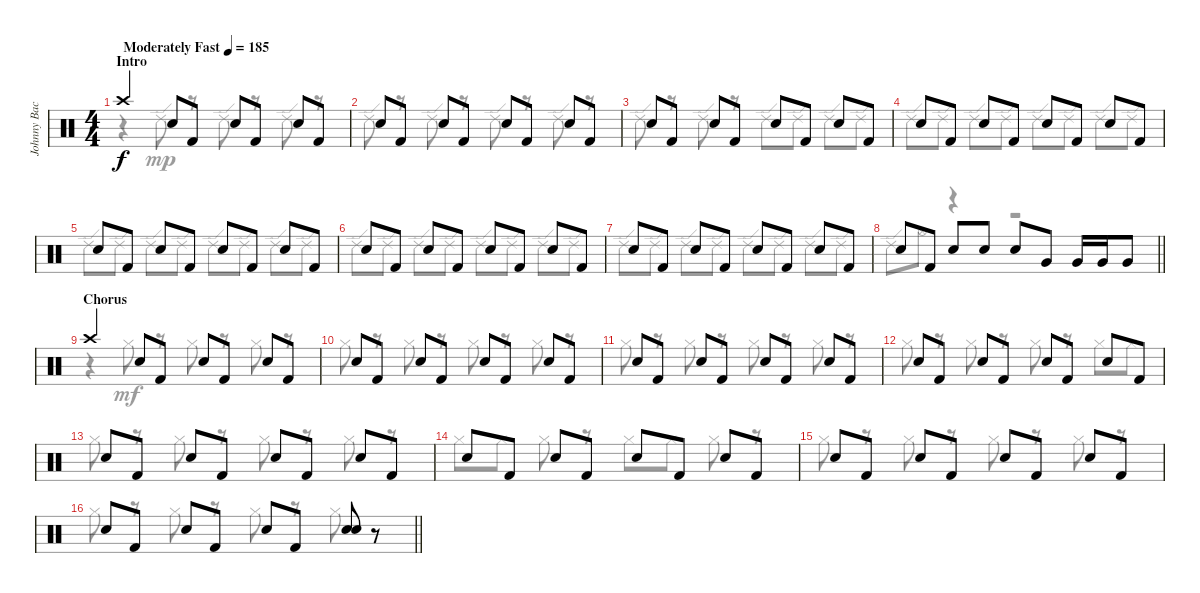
\track ("Johnny Backbeat" "Johnny Bac") {instrument percussion}
\staff {score}
\articulation defaults
\voice
\ts (4 4)
\section ("" "Intro")
\tempo (185 "Moderately Fast")
\clef neutral
\ks c "Crash high (hit)".4{dy f} "Electric Snare (hit)".8 "Kick (hit) 2".8 "Electric Snare (hit)".8 "Kick (hit) 2".8 "Electric Snare (hit)".8 "Kick (hit) 2".8
|
"Electric Snare (hit)".8 "Kick (hit) 2".8 "Electric Snare (hit)".8 "Kick (hit) 2".8 "Electric Snare (hit)".8 "Kick (hit) 2".8 "Electric Snare (hit)".8 "Kick (hit) 2".8 |
"Electric Snare (hit)".8 "Kick (hit) 2".8 "Electric Snare (hit)".8 "Kick (hit) 2".8 "Electric Snare (hit)".8 "Kick (hit) 2".8 "Electric Snare (hit)".8 "Kick (hit) 2".8 |
"Electric Snare (hit)".8 "Kick (hit) 2".8 "Electric Snare (hit)".8 "Kick (hit) 2".8 "Electric Snare (hit)".8 "Kick (hit) 2".8 "Electric Snare (hit)".8 "Kick (hit) 2".8 |
"Electric Snare (hit)".8 "Kick (hit) 2".8 "Electric Snare (hit)".8 "Kick (hit) 2".8 "Electric Snare (hit)".8 "Kick (hit) 2".8 "Electric Snare (hit)".8 "Kick (hit) 2".8 |
"Electric Snare (hit)".8 "Kick (hit) 2".8 "Electric Snare (hit)".8 "Kick (hit) 2".8 "Electric Snare (hit)".8 "Kick (hit) 2".8 "Electric Snare (hit)".8 "Kick (hit) 2".8 |
"Electric Snare (hit)".8 "Kick (hit) 2".8 "Electric Snare (hit)".8 "Kick (hit) 2".8 "Electric Snare (hit)".8 "Kick (hit) 2".8 "Electric Snare (hit)".8 "Kick (hit) 2".8 |
\barLineRight lightlight "Electric Snare (hit)".8 "Kick (hit) 2".8 "Electric Snare (hit)".8 "Electric Snare (hit)".8 "Electric Snare (hit)".8 "Very Low Tom (hit)".8 "Very Low Tom (hit)".16 "Very Low Tom (hit)".16 "Very Low Tom (hit)".8
|
\section ("" "Chorus")
"Crash high (hit)".4 "Electric Snare (hit)".8 "Kick (hit) 2".8 "Electric Snare (hit)".8 "Kick (hit) 2".8 "Electric Snare (hit)".8 "Kick (hit) 2".8 |
"Electric Snare (hit)".8 "Kick (hit) 2".8 "Electric Snare (hit)".8 "Kick (hit) 2".8 "Electric Snare (hit)".8 "Kick (hit) 2".8 "Electric Snare (hit)".8 "Kick (hit) 2".8 |
"Electric Snare (hit)".8 "Kick (hit) 2".8 "Electric Snare (hit)".8 "Kick (hit) 2".8 "Electric Snare (hit)".8 "Kick (hit) 2".8 "Electric Snare (hit)".8 "Kick (hit) 2".8 |
"Electric Snare (hit)".8 "Kick (hit) 2".8 "Electric Snare (hit)".8 "Kick (hit) 2".8 "Electric Snare (hit)".8 "Kick (hit) 2".8 "Electric Snare (hit)".8 "Kick (hit) 2".8 |
"Electric Snare (hit)".8 "Kick (hit) 2".8 "Electric Snare (hit)".8 "Kick (hit) 2".8 "Electric Snare (hit)".8 "Kick (hit) 2".8 "Electric Snare (hit)".8 "Kick (hit) 2".8 |
"Electric Snare (hit)".8 "Kick (hit) 2".8 "Electric Snare (hit)".8 "Kick (hit) 2".8 "Electric Snare (hit)".8 "Kick (hit) 2".8 "Electric Snare (hit)".8 "Kick (hit) 2".8 |
"Electric Snare (hit)".8 "Kick (hit) 2".8 "Electric Snare (hit)".8 "Kick (hit) 2".8 "Electric Snare (hit)".8 "Kick (hit) 2".8 "Electric Snare (hit)".8 "Kick (hit) 2".8 |
\barLineRight lightlight "Electric Snare (hit)".8 "Kick (hit) 2".8 "Electric Snare (hit)".8 "Kick (hit) 2".8 "Electric Snare (hit)".8 "Kick (hit) 2".8
("Electric Snare (hit)" "Electric Snare (hit)").8 r.8
\voice
\clef neutral
\ottava regular
\simile none
\ks c
r.4{dy mp} "Ride (edge) 2".8 r.8 "Ride (edge) 2".8 r.8 "Ride (edge) 2".8 r.8 |
"Ride (edge) 2".8 r.8 "Ride (edge) 2".8 r.8 "Ride (edge) 2".8 r.8 "Ride (edge) 2".8 r.8 |
"Ride (edge) 2".8 r.8 "Ride (edge) 2".8 r.8 "Ride (edge) 2".8 "Ride (edge) 2".8 "Ride (edge) 2".8 "Ride (edge) 2".8 |
"Ride (edge) 2".8 "Ride (edge) 2".8 "Ride (edge) 2".8 "Ride (edge) 2".8 "Ride (edge) 2".8 "Ride (edge) 2".8 "Ride (edge) 2".8 "Ride (edge) 2".8 |
"Ride (edge) 2".8 "Ride (edge) 2".8 "Ride (edge) 2".8 "Ride (edge) 2".8 "Ride (edge) 2".8 "Ride (edge) 2".8 "Ride (edge) 2".8 "Ride (edge) 2".8 |
"Ride (edge) 2".8 "Ride (edge) 2".8 "Ride (edge) 2".8 "Ride (edge) 2".8 "Ride (edge) 2".8 "Ride (edge) 2".8 "Ride (edge) 2".8 "Ride (edge) 2".8 |
"Ride (edge) 2".8 "Ride (edge) 2".8 "Ride (edge) 2".8 "Ride (edge) 2".8 "Ride (edge) 2".8 "Ride (edge) 2".8 "Ride (edge) 2".8 "Ride (edge) 2".8 |
\barLineRight lightlight "Ride (edge) 2".8 "Hi-Hat (open)".8
r.4 r.2 |
r.4 "Hi-Hat (closed)".8{dy mf} r.8 "Hi-Hat (closed)".8 r.8 "Hi-Hat (closed)".8 r.8 |
"Hi-Hat (closed)".8 r.8 "Hi-Hat (closed)".8 r.8 "Hi-Hat (closed)".8 r.8 "Hi-Hat (closed)".8 r.8 |
"Hi-Hat (closed)".8 r.8 "Hi-Hat (closed)".8 r.8 "Hi-Hat (closed)".8 r.8 "Hi-Hat (closed)".8 r.8 |
"Hi-Hat (closed)".8 r.8 "Hi-Hat (closed)".8 r.8 "Hi-Hat (closed)".8 r.8 "Hi-Hat (closed)".8 "Hi-Hat (closed)".8 |
"Hi-Hat (closed)".8 r.8 "Hi-Hat (closed)".8 r.8 "Hi-Hat (closed)".8 r.8 "Hi-Hat (closed)".8 r.8 |
"Hi-Hat (closed)".8 "Hi-Hat (closed)".8 "Hi-Hat (closed)".8 r.8 "Hi-Hat (closed)".8 "Hi-Hat (closed)".8 "Hi-Hat (closed)".8 r.8 |
"Hi-Hat (closed)".8 r.8 "Hi-Hat (closed)".8 r.8 "Hi-Hat (closed)".8 r.8 "Hi-Hat (closed)".8 r.8 |
\barLineRight lightlight "Hi-Hat (closed)".8
r.8 "Hi-Hat (closed)".8 r.8 "Hi-Hat (closed)".8 r.8 "Hi-Hat (closed)".8 r.8
